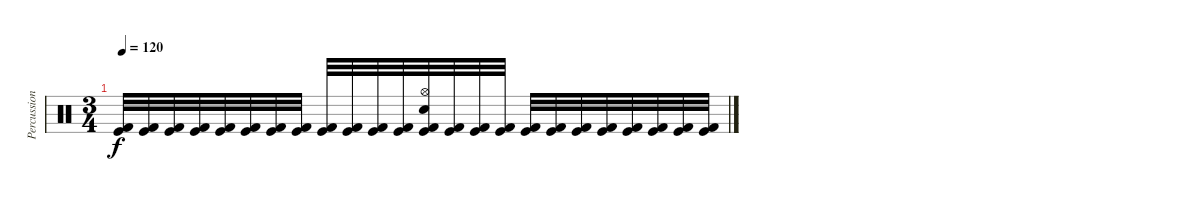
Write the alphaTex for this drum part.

\track ("Percussion" "Percussion") {instrument percussion}
\staff {score}
\articulation defaults
\ts (3 4)
\tempo 120
\clef neutral
\ks c
("Kick (hit)" "Kick (hit) 2").32{dy f} ("Kick (hit)" "Kick (hit) 2").32 ("Kick (hit)" "Kick (hit) 2").32 ("Kick (hit)" "Kick (hit) 2").32 ("Kick (hit)" "Kick (hit) 2").32 ("Kick (hit)" "Kick (hit) 2").32 ("Kick (hit)" "Kick (hit) 2").32 ("Kick (hit)" "Kick (hit) 2").32 ("Kick (hit)" "Kick (hit) 2").32 ("Kick (hit)" "Kick (hit) 2").32 ("Kick (hit)" "Kick (hit) 2").32 ("Kick (hit)" "Kick (hit) 2").32 ("Hi-Hat (open)" "Kick (hit)" "Electric Snare (hit)" "Kick (hit) 2").32 ("Kick (hit)" "Kick (hit) 2").32 ("Kick (hit)" "Kick (hit) 2").32 ("Kick (hit)" "Kick (hit) 2").32 ("Kick (hit)" "Kick (hit) 2").32 ("Kick (hit)" "Kick (hit) 2").32 ("Kick (hit)" "Kick (hit) 2").32 ("Kick (hit)" "Kick (hit) 2").32 ("Kick (hit)" "Kick (hit) 2").32 ("Kick (hit)" "Kick (hit) 2").32 ("Kick (hit)" "Kick (hit) 2").32 ("Kick (hit)" "Kick (hit) 2").32
